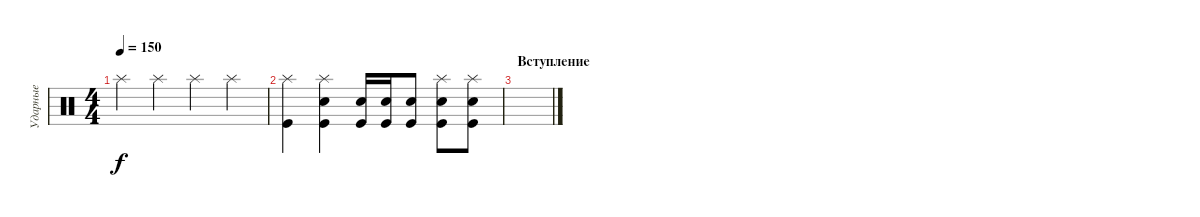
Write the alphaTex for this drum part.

\track ("Ударные" "Ударные") {instrument percussion}
\staff {score}
\articulation defaults
\ts (4 4)
\tempo 150
\clef neutral
\ks c "Splash (hit)".4{dy f} "Splash (hit)".4 "Splash (hit)".4 "Splash (hit)".4
|
("Splash (hit)" "Kick (hit)").4 ("Splash (hit)" "Kick (hit)" "Electric Snare (hit)").4 ("Kick (hit)" "Electric Snare (hit)").16 ("Kick (hit)" "Electric Snare (hit)").16 ("Kick (hit)" "Electric Snare (hit)").8 ("Kick (hit)" "Electric Snare (hit)" "Splash (hit)").8 ("Kick (hit)" "Electric Snare (hit)" "Splash (hit)").8 |
\section ("" "Вступление")
